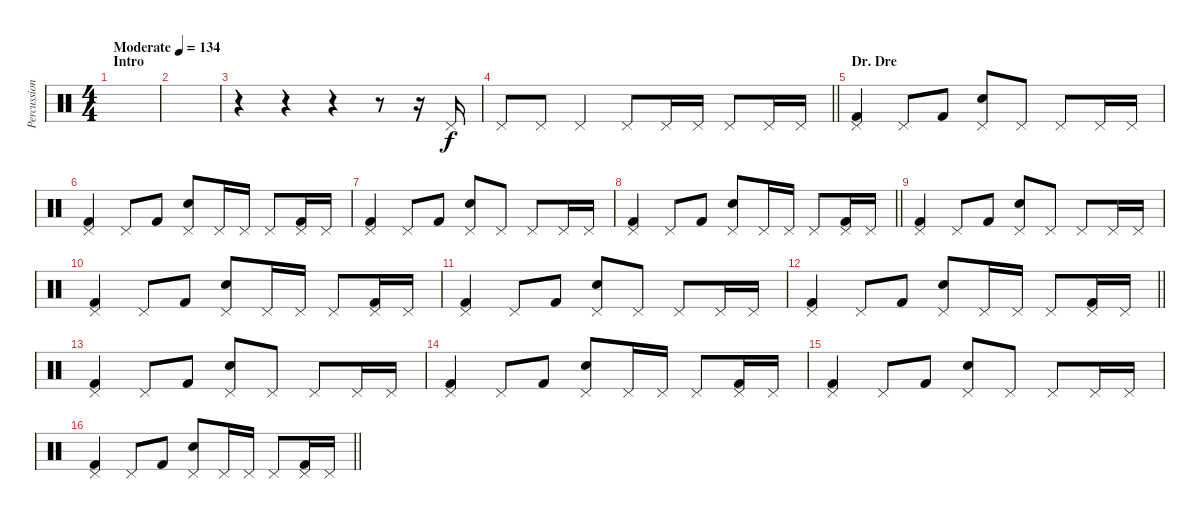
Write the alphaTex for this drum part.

\track ("Percussion" "Percussion") {instrument percussion}
\staff {score}
\articulation defaults
\ts (4 4)
\section ("" "Intro")
\tempo (134 "Moderate")
\clef neutral
\ks c
|
|
r.4 r.4 r.4 r.8 r.16 "Pedal Hi-Hat (hit)".16 |
\barLineRight lightlight "Pedal Hi-Hat (hit)".8 "Pedal Hi-Hat (hit)".8 "Pedal Hi-Hat (hit)".4 "Pedal Hi-Hat (hit)".8 "Pedal Hi-Hat (hit)".16 "Pedal Hi-Hat (hit)".16 "Pedal Hi-Hat (hit)".8 "Pedal Hi-Hat (hit)".16 "Pedal Hi-Hat (hit)".16
|
\section ("" "Dr. Dre")
("Pedal Hi-Hat (hit)" "Kick (hit) 2").4 "Pedal Hi-Hat (hit)".8 "Kick (hit) 2".8 ("Pedal Hi-Hat (hit)" "Electric Snare (hit)").8 "Pedal Hi-Hat (hit)".8 "Pedal Hi-Hat (hit)".8 "Pedal Hi-Hat (hit)".16 "Pedal Hi-Hat (hit)".16 |
("Pedal Hi-Hat (hit)" "Kick (hit) 2").4 "Pedal Hi-Hat (hit)".8 "Kick (hit) 2".8 ("Pedal Hi-Hat (hit)" "Electric Snare (hit)").8 "Pedal Hi-Hat (hit)".16 "Pedal Hi-Hat (hit)".16 "Pedal Hi-Hat (hit)".8 ("Pedal Hi-Hat (hit)" "Kick (hit) 2").16 "Pedal Hi-Hat (hit)".16 |
("Pedal Hi-Hat (hit)" "Kick (hit) 2").4 "Pedal Hi-Hat (hit)".8 "Kick (hit) 2".8 ("Pedal Hi-Hat (hit)" "Electric Snare (hit)").8 "Pedal Hi-Hat (hit)".8 "Pedal Hi-Hat (hit)".8 "Pedal Hi-Hat (hit)".16 "Pedal Hi-Hat (hit)".16 |
\barLineRight lightlight
("Pedal Hi-Hat (hit)" "Kick (hit) 2").4 "Pedal Hi-Hat (hit)".8 "Kick (hit) 2".8 ("Pedal Hi-Hat (hit)" "Electric Snare (hit)").8 "Pedal Hi-Hat (hit)".16 "Pedal Hi-Hat (hit)".16 "Pedal Hi-Hat (hit)".8 ("Pedal Hi-Hat (hit)" "Kick (hit) 2").16 "Pedal Hi-Hat (hit)".16 |
("Pedal Hi-Hat (hit)" "Kick (hit) 2").4 "Pedal Hi-Hat (hit)".8 "Kick (hit) 2".8 ("Pedal Hi-Hat (hit)" "Electric Snare (hit)").8 "Pedal Hi-Hat (hit)".8 "Pedal Hi-Hat (hit)".8 "Pedal Hi-Hat (hit)".16 "Pedal Hi-Hat (hit)".16 |
("Pedal Hi-Hat (hit)" "Kick (hit) 2").4 "Pedal Hi-Hat (hit)".8 "Kick (hit) 2".8 ("Pedal Hi-Hat (hit)" "Electric Snare (hit)").8 "Pedal Hi-Hat (hit)".16 "Pedal Hi-Hat (hit)".16 "Pedal Hi-Hat (hit)".8 ("Pedal Hi-Hat (hit)" "Kick (hit) 2").16 "Pedal Hi-Hat (hit)".16 |
("Pedal Hi-Hat (hit)" "Kick (hit) 2").4 "Pedal Hi-Hat (hit)".8 "Kick (hit) 2".8 ("Pedal Hi-Hat (hit)" "Electric Snare (hit)").8 "Pedal Hi-Hat (hit)".8 "Pedal Hi-Hat (hit)".8 "Pedal Hi-Hat (hit)".16 "Pedal Hi-Hat (hit)".16 |
\barLineRight lightlight
("Pedal Hi-Hat (hit)" "Kick (hit) 2").4 "Pedal Hi-Hat (hit)".8 "Kick (hit) 2".8 ("Pedal Hi-Hat (hit)" "Electric Snare (hit)").8 "Pedal Hi-Hat (hit)".16 "Pedal Hi-Hat (hit)".16 "Pedal Hi-Hat (hit)".8 ("Pedal Hi-Hat (hit)" "Kick (hit) 2").16 "Pedal Hi-Hat (hit)".16 |
("Pedal Hi-Hat (hit)" "Kick (hit) 2").4 "Pedal Hi-Hat (hit)".8 "Kick (hit) 2".8 ("Pedal Hi-Hat (hit)" "Electric Snare (hit)").8 "Pedal Hi-Hat (hit)".8 "Pedal Hi-Hat (hit)".8 "Pedal Hi-Hat (hit)".16 "Pedal Hi-Hat (hit)".16 |
("Pedal Hi-Hat (hit)" "Kick (hit) 2").4 "Pedal Hi-Hat (hit)".8 "Kick (hit) 2".8 ("Pedal Hi-Hat (hit)" "Electric Snare (hit)").8 "Pedal Hi-Hat (hit)".16 "Pedal Hi-Hat (hit)".16 "Pedal Hi-Hat (hit)".8 ("Pedal Hi-Hat (hit)" "Kick (hit) 2").16 "Pedal Hi-Hat (hit)".16 |
("Pedal Hi-Hat (hit)" "Kick (hit) 2").4 "Pedal Hi-Hat (hit)".8 "Kick (hit) 2".8 ("Pedal Hi-Hat (hit)" "Electric Snare (hit)").8 "Pedal Hi-Hat (hit)".8 "Pedal Hi-Hat (hit)".8 "Pedal Hi-Hat (hit)".16 "Pedal Hi-Hat (hit)".16 |
\barLineRight lightlight
("Pedal Hi-Hat (hit)" "Kick (hit) 2").4 "Pedal Hi-Hat (hit)".8 "Kick (hit) 2".8 ("Pedal Hi-Hat (hit)" "Electric Snare (hit)").8 "Pedal Hi-Hat (hit)".16 "Pedal Hi-Hat (hit)".16 "Pedal Hi-Hat (hit)".8 ("Pedal Hi-Hat (hit)" "Kick (hit) 2").16 "Pedal Hi-Hat (hit)".16
